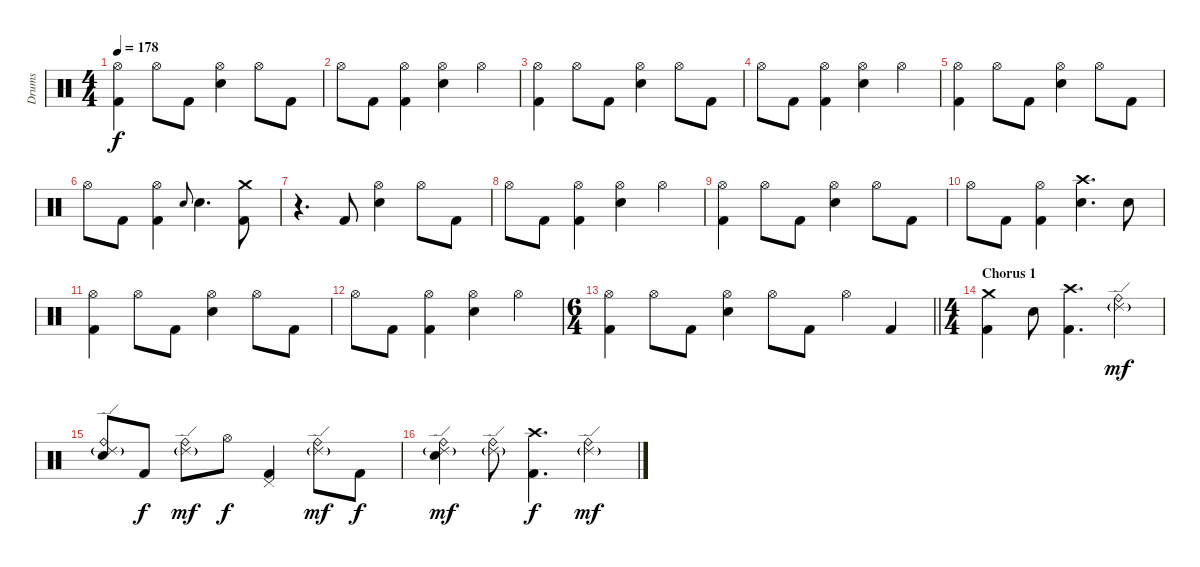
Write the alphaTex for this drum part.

\track ("Drums" "Drums") {instrument percussion}
\staff {score}
\articulation defaults
\ts (4 4)
\tempo 178
\clef neutral
\ks c
("Hi-Hat (open)" "Kick (hit) 2").4{dy f} "Hi-Hat (open)".8 "Kick (hit) 2".8 ("Hi-Hat (open)" "Electric Snare (hit)").4 "Hi-Hat (open)".8 "Kick (hit) 2".8 |
"Hi-Hat (open)".8 "Kick (hit) 2".8 ("Hi-Hat (open)" "Kick (hit) 2").4 ("Hi-Hat (open)" "Electric Snare (hit)").4 "Hi-Hat (open)".4 |
("Hi-Hat (open)" "Kick (hit) 2").4 "Hi-Hat (open)".8 "Kick (hit) 2".8 ("Hi-Hat (open)" "Electric Snare (hit)").4 "Hi-Hat (open)".8 "Kick (hit) 2".8 |
"Hi-Hat (open)".8 "Kick (hit) 2".8 ("Hi-Hat (open)" "Kick (hit) 2").4 ("Hi-Hat (open)" "Electric Snare (hit)").4 "Hi-Hat (open)".4 |
("Hi-Hat (open)" "Kick (hit) 2").4 "Hi-Hat (open)".8 "Kick (hit) 2".8 ("Hi-Hat (open)" "Electric Snare (hit)").4 "Hi-Hat (open)".8 "Kick (hit) 2".8 |
"Hi-Hat (open)".8 "Kick (hit) 2".8 ("Hi-Hat (open)" "Kick (hit) 2").4 "Electric Snare (hit)".8{gr onbeat} "Electric Snare (hit)".4{d} ("Crash medium (hit)" "Kick (hit) 2").8 |
r.4{d} "Kick (hit) 2".8 ("Hi-Hat (open)" "Electric Snare (hit)").4 "Hi-Hat (open)".8 "Kick (hit) 2".8 |
"Hi-Hat (open)".8 "Kick (hit) 2".8 ("Hi-Hat (open)" "Kick (hit) 2").4 ("Hi-Hat (open)" "Electric Snare (hit)").4 "Hi-Hat (open)".4 |
("Hi-Hat (open)" "Kick (hit) 2").4 "Hi-Hat (open)".8 "Kick (hit) 2".8 ("Hi-Hat (open)" "Electric Snare (hit)").4 "Hi-Hat (open)".8 "Kick (hit) 2".8 |
"Hi-Hat (open)".8 "Kick (hit) 2".8 ("Hi-Hat (open)" "Kick (hit) 2").4 ("Crash high (hit)" "Electric Snare (hit)").4{d} "Electric Snare (hit)".8 |
("Hi-Hat (open)" "Kick (hit) 2").4 "Hi-Hat (open)".8 "Kick (hit) 2".8 ("Hi-Hat (open)" "Electric Snare (hit)").4 "Hi-Hat (open)".8 "Kick (hit) 2".8 |
"Hi-Hat (open)".8 "Kick (hit) 2".8 ("Hi-Hat (open)" "Kick (hit) 2").4 ("Hi-Hat (open)" "Electric Snare (hit)").4 "Hi-Hat (open)".4 |
\ts (6 4)
\barLineRight lightlight
("Hi-Hat (open)" "Kick (hit) 2").4 "Hi-Hat (open)".8 "Kick (hit) 2".8 ("Hi-Hat (open)" "Electric Snare (hit)").4 "Hi-Hat (open)".8 "Kick (hit) 2".8 "Hi-Hat (open)".4 "Kick (hit) 2".4 |
\ts (4 4)
\section ("" "Chorus 1")
("Crash medium (hit)" "Kick (hit) 2").4 "Electric Snare (hit)".8 ("Crash high (hit)" "Kick (hit) 2").4{d} ("Ride (bell)" "Ride (edge) 2"{g}).4{dy mf} |
("Ride (bell)" "Ride (edge) 2"{g} "Electric Snare (hit)").8 "Kick (hit) 2".8{dy f} ("Ride (bell)" "Ride (edge) 2"{g}).8{dy mf} "Hi-Hat (open)".8{dy f} ("Pedal Hi-Hat (hit)" "Kick (hit) 2").4 ("Ride (bell)" "Ride (edge) 2"{g}).8{dy mf} "Kick (hit) 2".8{dy f} |
("Ride (bell)" "Ride (edge) 2"{g} "Electric Snare (hit)").4{dy mf} ("Ride (bell)" "Ride (edge) 2"{g}).8 ("Crash high (hit)" "Kick (hit) 2").4{d dy f} ("Ride (bell)" "Ride (edge) 2"{g}).4{dy mf}
